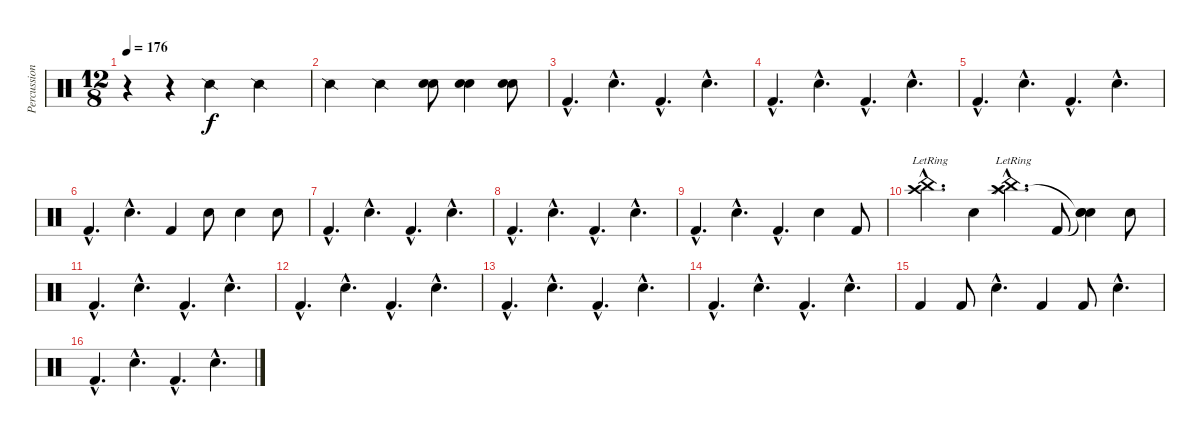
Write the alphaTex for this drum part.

\track ("Percussion" "Percussion") {instrument percussion}
\staff {score}
\articulation defaults
\ts (12 8)
\tempo 176
\clef neutral
\ks c
r.4{dy f} r.4 "Snare (side stick) 2".2 "Snare (side stick) 2".2 |
"Snare (side stick) 2".2 "Snare (side stick) 2".2 ("Electric Snare (hit)" "Snare (hit) 2").8 ("Electric Snare (hit)" "Snare (hit) 2").4 ("Electric Snare (hit)" "Snare (hit) 2").8 |
"Kick (hit) 2"{hac}.4{d} "Snare (hit) 2"{hac}.4{d} "Kick (hit) 2"{hac}.4{d} "Snare (hit) 2"{hac}.4{d} |
"Kick (hit) 2"{hac}.4{d} "Snare (hit) 2"{hac}.4{d} "Kick (hit) 2"{hac}.4{d} "Snare (hit) 2"{hac}.4{d} |
"Kick (hit) 2"{hac}.4{d} "Snare (hit) 2"{hac}.4{d} "Kick (hit) 2"{hac}.4{d} "Snare (hit) 2"{hac}.4{d} |
"Kick (hit) 2"{hac}.4{d} "Snare (hit) 2"{hac}.4{d} "Kick (hit) 2".4 "Snare (hit) 2".8 "Snare (hit) 2".4 "Snare (hit) 2".8 |
"Kick (hit) 2"{hac}.4{d} "Snare (hit) 2"{hac}.4{d} "Kick (hit) 2"{hac}.4{d} "Snare (hit) 2"{hac}.4{d} |
"Kick (hit) 2"{hac}.4{d} "Snare (hit) 2"{hac}.4{d} "Kick (hit) 2"{hac}.4{d} "Snare (hit) 2"{hac}.4{d} |
"Kick (hit) 2"{hac}.4{d} "Snare (hit) 2"{hac}.4{d} "Kick (hit) 2"{hac}.4{d} "Snare (hit) 2".4 "Kick (hit) 2".8 |
("China (hit)"{hac lr} "Crash high (hit)"{hac lr}).4{d} "Snare (hit) 2".4 ("China (hit)"{hac lr} "Crash high (hit)"{hac lr} "Splash (hit)"{hac lr}).4{d} "Kick (hit) 2".8 ("Snare (hit)"{t} "Snare (hit)"{t} "Snare (hit) 2").4 "Snare (hit) 2".8 |
"Kick (hit) 2"{hac}.4{d} "Snare (hit) 2"{hac}.4{d} "Kick (hit) 2"{hac}.4{d} "Snare (hit) 2"{hac}.4{d} |
"Kick (hit) 2"{hac}.4{d} "Snare (hit) 2"{hac}.4{d} "Kick (hit) 2"{hac}.4{d} "Snare (hit) 2"{hac}.4{d} |
"Kick (hit) 2"{hac}.4{d} "Snare (hit) 2"{hac}.4{d} "Kick (hit) 2"{hac}.4{d} "Snare (hit) 2"{hac}.4{d} |
"Kick (hit) 2"{hac}.4{d} "Snare (hit) 2"{hac}.4{d} "Kick (hit) 2"{hac}.4{d} "Snare (hit) 2"{hac}.4{d} |
"Kick (hit) 2".4 "Kick (hit) 2".8 "Snare (hit) 2"{hac}.4{d} "Kick (hit) 2".4 "Kick (hit) 2".8 "Snare (hit) 2"{hac}.4{d} |
"Kick (hit) 2"{hac}.4{d} "Snare (hit) 2"{hac}.4{d} "Kick (hit) 2"{hac}.4{d} "Snare (hit) 2"{hac}.4{d}
